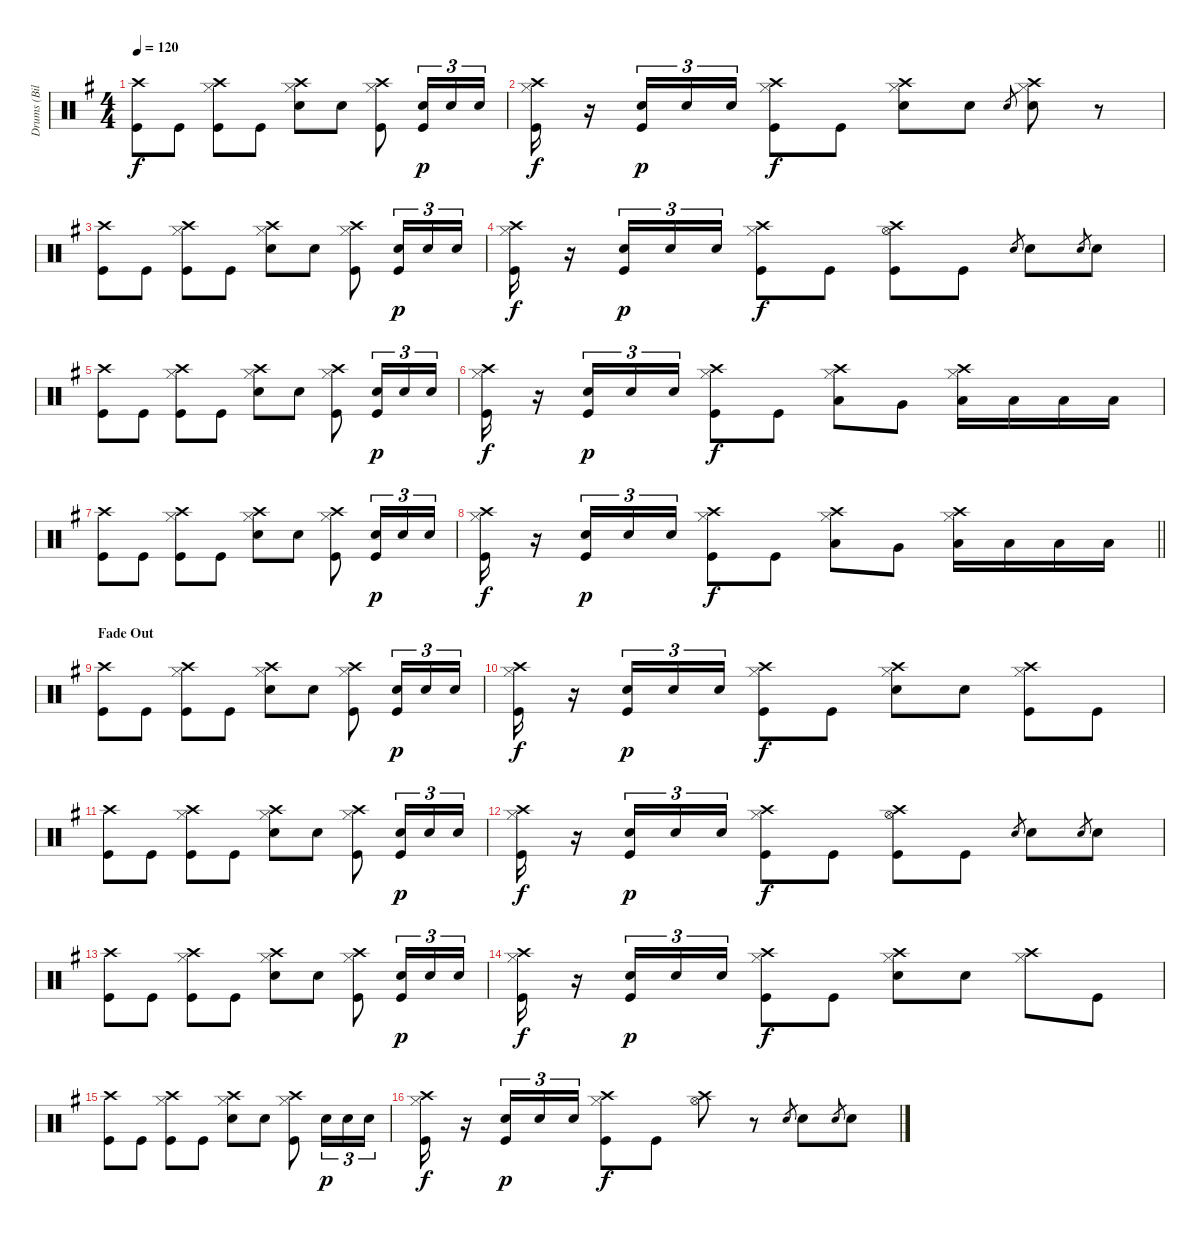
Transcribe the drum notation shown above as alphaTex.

\track ("Drums (Bill Ward)" "Drums (Bil") {instrument percussion}
\staff {score}
\articulation defaults
\ts (4 4)
\tempo 120
\clef neutral
\ks g
("Crash high (hit)" "Kick (hit)").8{dy f} "Kick (hit)".8 ("Crash high (hit)" "Hi-Hat (closed)" "Kick (hit)").8 "Kick (hit)".8 ("Crash high (hit)" "Hi-Hat (closed)" "Electric Snare (hit)").8 "Electric Snare (hit)".8 ("Crash high (hit)" "Hi-Hat (closed)" "Kick (hit)").8 ("Electric Snare (hit)" "Kick (hit)").16{tu (3 2) dy p} "Electric Snare (hit)".16{tu (3 2)} "Electric Snare (hit)".16{tu (3 2)} |
("Crash high (hit)" "Hi-Hat (closed)" "Kick (hit)").16{dy f} r.16 ("Electric Snare (hit)" "Kick (hit)").16{tu (3 2) dy p} "Electric Snare (hit)".16{tu (3 2)} "Electric Snare (hit)".16{tu (3 2)} ("Crash high (hit)" "Hi-Hat (closed)" "Kick (hit)").8{dy f} "Kick (hit)".8 ("Crash high (hit)" "Hi-Hat (closed)" "Electric Snare (hit)").8 "Electric Snare (hit)".8 "Electric Snare (hit)".8{gr} ("Crash high (hit)" "Hi-Hat (closed)" "Electric Snare (hit)").8 r.8 |
("Crash high (hit)" "Kick (hit)").8 "Kick (hit)".8 ("Crash high (hit)" "Hi-Hat (closed)" "Kick (hit)").8 "Kick (hit)".8 ("Crash high (hit)" "Hi-Hat (closed)" "Electric Snare (hit)").8 "Electric Snare (hit)".8 ("Crash high (hit)" "Hi-Hat (closed)" "Kick (hit)").8 ("Electric Snare (hit)" "Kick (hit)").16{tu (3 2) dy p} "Electric Snare (hit)".16{tu (3 2)} "Electric Snare (hit)".16{tu (3 2)} |
("Crash high (hit)" "Hi-Hat (closed)" "Kick (hit)").16{dy f} r.16 ("Electric Snare (hit)" "Kick (hit)").16{tu (3 2) dy p} "Electric Snare (hit)".16{tu (3 2)} "Electric Snare (hit)".16{tu (3 2)} ("Crash high (hit)" "Hi-Hat (closed)" "Kick (hit)").8{dy f} "Kick (hit)".8 ("Crash high (hit)" "Hi-Hat (open)" "Kick (hit)").8 "Kick (hit)".8 "Electric Snare (hit)".8{gr} "Electric Snare (hit)".8 "Electric Snare (hit)".8{gr} "Electric Snare (hit)".8 |
("Crash high (hit)" "Kick (hit)").8 "Kick (hit)".8 ("Crash high (hit)" "Hi-Hat (closed)" "Kick (hit)").8 "Kick (hit)".8 ("Crash high (hit)" "Hi-Hat (closed)" "Electric Snare (hit)").8 "Electric Snare (hit)".8 ("Crash high (hit)" "Hi-Hat (closed)" "Kick (hit)").8 ("Electric Snare (hit)" "Kick (hit)").16{tu (3 2) dy p} "Electric Snare (hit)".16{tu (3 2)} "Electric Snare (hit)".16{tu (3 2)} |
("Crash high (hit)" "Hi-Hat (closed)" "Kick (hit)").16{dy f} r.16 ("Electric Snare (hit)" "Kick (hit)").16{tu (3 2) dy p} "Electric Snare (hit)".16{tu (3 2)} "Electric Snare (hit)".16{tu (3 2)} ("Crash high (hit)" "Hi-Hat (closed)" "Kick (hit)").8{dy f} "Kick (hit)".8 ("Crash high (hit)" "Hi-Hat (closed)" "Low Tom (hit)").8 "Very Low Tom (hit)".8 ("Crash high (hit)" "Hi-Hat (closed)" "Low Floor Tom (hit)").16 "Low Floor Tom (hit)".16 "Low Floor Tom (hit)".16 "Low Floor Tom (hit)".16 |
("Crash high (hit)" "Kick (hit)").8 "Kick (hit)".8 ("Crash high (hit)" "Hi-Hat (closed)" "Kick (hit)").8 "Kick (hit)".8 ("Crash high (hit)" "Hi-Hat (closed)" "Electric Snare (hit)").8 "Electric Snare (hit)".8 ("Crash high (hit)" "Hi-Hat (closed)" "Kick (hit)").8 ("Electric Snare (hit)" "Kick (hit)").16{tu (3 2) dy p} "Electric Snare (hit)".16{tu (3 2)} "Electric Snare (hit)".16{tu (3 2)} |
\barLineRight lightlight
("Crash high (hit)" "Hi-Hat (closed)" "Kick (hit)").16{dy f} r.16 ("Electric Snare (hit)" "Kick (hit)").16{tu (3 2) dy p} "Electric Snare (hit)".16{tu (3 2)} "Electric Snare (hit)".16{tu (3 2)} ("Crash high (hit)" "Hi-Hat (closed)" "Kick (hit)").8{dy f} "Kick (hit)".8 ("Crash high (hit)" "Hi-Hat (closed)" "Low Tom (hit)").8 "Very Low Tom (hit)".8 ("Crash high (hit)" "Hi-Hat (closed)" "Low Floor Tom (hit)").16 "Low Floor Tom (hit)".16 "Low Floor Tom (hit)".16 "Low Floor Tom (hit)".16 |
\section ("" "Fade Out")
("Crash high (hit)" "Kick (hit)").8 "Kick (hit)".8 ("Crash high (hit)" "Hi-Hat (closed)" "Kick (hit)").8 "Kick (hit)".8 ("Crash high (hit)" "Hi-Hat (closed)" "Electric Snare (hit)").8 "Electric Snare (hit)".8 ("Crash high (hit)" "Hi-Hat (closed)" "Kick (hit)").8 ("Electric Snare (hit)" "Kick (hit)").16{tu (3 2) dy p} "Electric Snare (hit)".16{tu (3 2)} "Electric Snare (hit)".16{tu (3 2)} |
("Crash high (hit)" "Hi-Hat (closed)" "Kick (hit)").16{dy f} r.16 ("Electric Snare (hit)" "Kick (hit)").16{tu (3 2) dy p} "Electric Snare (hit)".16{tu (3 2)} "Electric Snare (hit)".16{tu (3 2)} ("Crash high (hit)" "Hi-Hat (closed)" "Kick (hit)").8{dy f} "Kick (hit)".8 ("Crash high (hit)" "Hi-Hat (closed)" "Electric Snare (hit)").8 "Electric Snare (hit)".8 ("Crash high (hit)" "Hi-Hat (closed)" "Kick (hit)").8 "Kick (hit)".8 |
("Crash high (hit)" "Kick (hit)").8 "Kick (hit)".8 ("Crash high (hit)" "Hi-Hat (closed)" "Kick (hit)").8 "Kick (hit)".8 ("Crash high (hit)" "Hi-Hat (closed)" "Electric Snare (hit)").8 "Electric Snare (hit)".8 ("Crash high (hit)" "Hi-Hat (closed)" "Kick (hit)").8 ("Electric Snare (hit)" "Kick (hit)").16{tu (3 2) dy p} "Electric Snare (hit)".16{tu (3 2)} "Electric Snare (hit)".16{tu (3 2)} |
("Crash high (hit)" "Hi-Hat (closed)" "Kick (hit)").16{dy f} r.16 ("Electric Snare (hit)" "Kick (hit)").16{tu (3 2) dy p} "Electric Snare (hit)".16{tu (3 2)} "Electric Snare (hit)".16{tu (3 2)} ("Crash high (hit)" "Hi-Hat (closed)" "Kick (hit)").8{dy f} "Kick (hit)".8 ("Crash high (hit)" "Hi-Hat (open)" "Kick (hit)").8 "Kick (hit)".8 "Electric Snare (hit)".8{gr} "Electric Snare (hit)".8 "Electric Snare (hit)".8{gr} "Electric Snare (hit)".8 |
("Crash high (hit)" "Kick (hit)").8 "Kick (hit)".8 ("Crash high (hit)" "Hi-Hat (closed)" "Kick (hit)").8 "Kick (hit)".8 ("Crash high (hit)" "Hi-Hat (closed)" "Electric Snare (hit)").8 "Electric Snare (hit)".8 ("Crash high (hit)" "Hi-Hat (closed)" "Kick (hit)").8 ("Electric Snare (hit)" "Kick (hit)").16{tu (3 2) dy p} "Electric Snare (hit)".16{tu (3 2)} "Electric Snare (hit)".16{tu (3 2)} |
("Crash high (hit)" "Hi-Hat (closed)" "Kick (hit)").16{dy f} r.16 ("Electric Snare (hit)" "Kick (hit)").16{tu (3 2) dy p} "Electric Snare (hit)".16{tu (3 2)} "Electric Snare (hit)".16{tu (3 2)} ("Crash high (hit)" "Hi-Hat (closed)" "Kick (hit)").8{dy f} "Kick (hit)".8 ("Crash high (hit)" "Hi-Hat (closed)" "Electric Snare (hit)").8 "Electric Snare (hit)".8 ("Crash high (hit)" "Hi-Hat (closed)").8 "Kick (hit)".8 |
("Crash high (hit)" "Kick (hit)").8 "Kick (hit)".8 ("Crash high (hit)" "Hi-Hat (closed)" "Kick (hit)").8 "Kick (hit)".8 ("Crash high (hit)" "Hi-Hat (closed)" "Electric Snare (hit)").8 "Electric Snare (hit)".8 ("Crash high (hit)" "Hi-Hat (closed)" "Kick (hit)").8 "Electric Snare (hit)".16{tu (3 2) dy p} "Electric Snare (hit)".16{tu (3 2)} "Electric Snare (hit)".16{tu (3 2)} |
("Crash high (hit)" "Hi-Hat (closed)" "Kick (hit)").16{dy f} r.16 ("Electric Snare (hit)" "Kick (hit)").16{tu (3 2) dy p} "Electric Snare (hit)".16{tu (3 2)} "Electric Snare (hit)".16{tu (3 2)} ("Crash high (hit)" "Hi-Hat (closed)" "Kick (hit)").8{dy f} "Kick (hit)".8 ("Crash high (hit)" "Hi-Hat (open)").8 r.8 "Electric Snare (hit)".8{gr} "Electric Snare (hit)".8 "Electric Snare (hit)".8{gr} "Electric Snare (hit)".8
